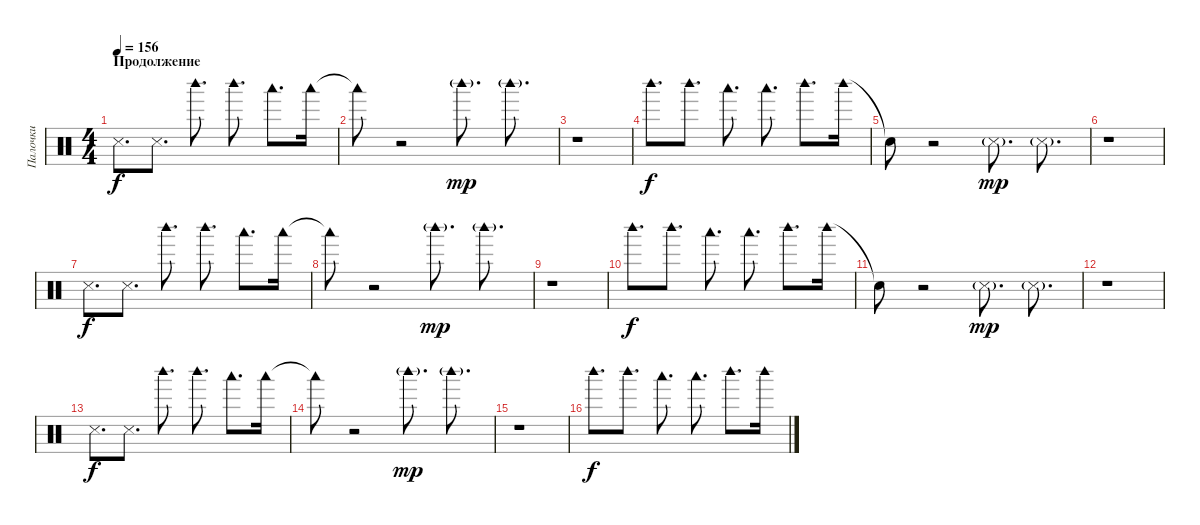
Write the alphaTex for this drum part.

\track ("Палочки" "Палочки") {instrument percussion}
\staff {score}
\articulation defaults
\ts (4 4)
\section ("" "Продолжение")
\tempo 156
\clef neutral
\ks c "Metronome (hit)".8{d dy f} "Metronome (hit)".8{d} "Woodblock high (hit)".8{d} "Woodblock high (hit)".8{d} "Woodblock low (hit)".8{d} "Woodblock low (hit)".16
|
"Woodblock low (hit)"{t}.8 r.2 "Woodblock high (hit)"{g}.8{d dy mp} "Woodblock high (hit)"{g}.8{d} |
r.1 |
"Woodblock high (hit)".8{d dy f} "Woodblock high (hit)".8{d} "Woodblock low (hit)".8{d} "Woodblock low (hit)".8{d} "Woodblock high (hit)".8{d} "Woodblock high (hit)".16 |
"Snare (hit)"{t}.8 r.2 "Metronome (hit)"{g}.8{d dy mp} "Metronome (hit)"{g}.8{d} |
r.1 |
"Metronome (hit)".8{d dy f} "Metronome (hit)".8{d} "Woodblock high (hit)".8{d} "Woodblock high (hit)".8{d} "Woodblock low (hit)".8{d} "Woodblock low (hit)".16 |
"Woodblock low (hit)"{t}.8 r.2 "Woodblock high (hit)"{g}.8{d dy mp} "Woodblock high (hit)"{g}.8{d} |
r.1 |
"Woodblock high (hit)".8{d dy f} "Woodblock high (hit)".8{d} "Woodblock low (hit)".8{d} "Woodblock low (hit)".8{d} "Woodblock high (hit)".8{d} "Woodblock high (hit)".16 |
"Snare (hit)"{t}.8 r.2 "Metronome (hit)"{g}.8{d dy mp} "Metronome (hit)"{g}.8{d} |
r.1 |
"Metronome (hit)".8{d dy f} "Metronome (hit)".8{d} "Woodblock high (hit)".8{d} "Woodblock high (hit)".8{d} "Woodblock low (hit)".8{d} "Woodblock low (hit)".16 |
"Woodblock low (hit)"{t}.8 r.2 "Woodblock high (hit)"{g}.8{d dy mp} "Woodblock high (hit)"{g}.8{d} |
r.1 |
"Woodblock high (hit)".8{d dy f} "Woodblock high (hit)".8{d} "Woodblock low (hit)".8{d} "Woodblock low (hit)".8{d} "Woodblock high (hit)".8{d} "Woodblock high (hit)".16
